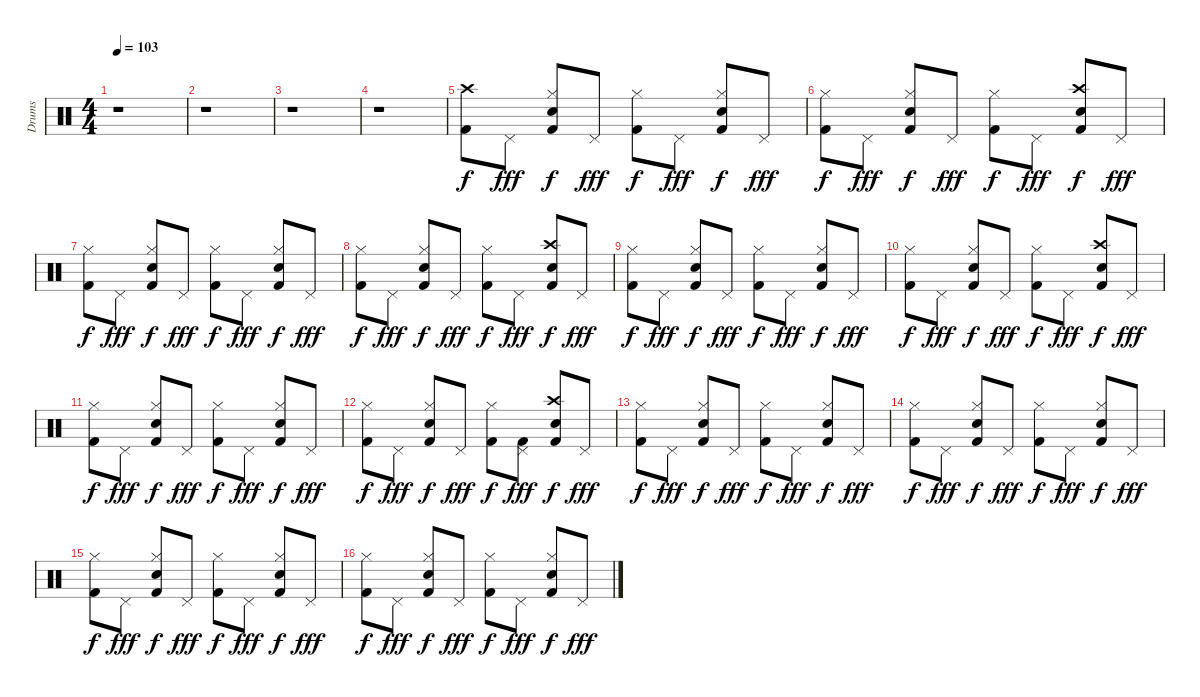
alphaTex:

\track ("Drums" "Drums") {instrument percussion}
\staff {score}
\articulation defaults
\ts (4 4)
\tempo 103
\clef neutral
\ks c
r.1{dy f} |
r.1 |
r.1 |
r.1 |
("Kick (hit) 2" "Crash high (hit)").8 "Pedal Hi-Hat (hit)".8{dy fff} ("Kick (hit) 2" "Hi-Hat (closed)" "Snare (hit) 2").8{dy f} "Pedal Hi-Hat (hit)".8{dy fff} ("Kick (hit) 2" "Hi-Hat (closed)").8{dy f} "Pedal Hi-Hat (hit)".8{dy fff} ("Kick (hit) 2" "Hi-Hat (closed)" "Snare (hit) 2").8{dy f} "Pedal Hi-Hat (hit)".8{dy fff} |
("Kick (hit) 2" "Hi-Hat (closed)").8{dy f} "Pedal Hi-Hat (hit)".8{dy fff} ("Kick (hit) 2" "Hi-Hat (closed)" "Snare (hit) 2").8{dy f} "Pedal Hi-Hat (hit)".8{dy fff} ("Kick (hit) 2" "Hi-Hat (closed)").8{dy f} "Pedal Hi-Hat (hit)".8{dy fff} ("Kick (hit) 2" "Crash high (hit)" "Snare (hit) 2").8{dy f} "Pedal Hi-Hat (hit)".8{dy fff} |
("Kick (hit) 2" "Hi-Hat (closed)").8{dy f} "Pedal Hi-Hat (hit)".8{dy fff} ("Kick (hit) 2" "Hi-Hat (closed)" "Snare (hit) 2").8{dy f} "Pedal Hi-Hat (hit)".8{dy fff} ("Kick (hit) 2" "Hi-Hat (closed)").8{dy f} "Pedal Hi-Hat (hit)".8{dy fff} ("Kick (hit) 2" "Hi-Hat (closed)" "Snare (hit) 2").8{dy f} "Pedal Hi-Hat (hit)".8{dy fff} |
("Kick (hit) 2" "Hi-Hat (closed)").8{dy f} "Pedal Hi-Hat (hit)".8{dy fff} ("Kick (hit) 2" "Hi-Hat (closed)" "Snare (hit) 2").8{dy f} "Pedal Hi-Hat (hit)".8{dy fff} ("Kick (hit) 2" "Hi-Hat (closed)").8{dy f} "Pedal Hi-Hat (hit)".8{dy fff} ("Kick (hit) 2" "Crash high (hit)" "Snare (hit) 2").8{dy f} "Pedal Hi-Hat (hit)".8{dy fff} |
("Kick (hit) 2" "Hi-Hat (closed)").8{dy f} "Pedal Hi-Hat (hit)".8{dy fff} ("Kick (hit) 2" "Hi-Hat (closed)" "Snare (hit) 2").8{dy f} "Pedal Hi-Hat (hit)".8{dy fff} ("Kick (hit) 2" "Hi-Hat (closed)").8{dy f} "Pedal Hi-Hat (hit)".8{dy fff} ("Kick (hit) 2" "Hi-Hat (closed)" "Snare (hit) 2").8{dy f} "Pedal Hi-Hat (hit)".8{dy fff} |
("Kick (hit) 2" "Hi-Hat (closed)").8{dy f} "Pedal Hi-Hat (hit)".8{dy fff} ("Kick (hit) 2" "Hi-Hat (closed)" "Snare (hit) 2").8{dy f} "Pedal Hi-Hat (hit)".8{dy fff} ("Kick (hit) 2" "Hi-Hat (closed)").8{dy f} "Pedal Hi-Hat (hit)".8{dy fff} ("Kick (hit) 2" "Crash high (hit)" "Snare (hit) 2").8{dy f} "Pedal Hi-Hat (hit)".8{dy fff} |
("Kick (hit) 2" "Hi-Hat (closed)").8{dy f} "Pedal Hi-Hat (hit)".8{dy fff} ("Kick (hit) 2" "Hi-Hat (closed)" "Snare (hit) 2").8{dy f} "Pedal Hi-Hat (hit)".8{dy fff} ("Kick (hit) 2" "Hi-Hat (closed)").8{dy f} "Pedal Hi-Hat (hit)".8{dy fff} ("Kick (hit) 2" "Hi-Hat (closed)" "Snare (hit) 2").8{dy f} "Pedal Hi-Hat (hit)".8{dy fff} |
("Kick (hit) 2" "Hi-Hat (closed)").8{dy f} "Pedal Hi-Hat (hit)".8{dy fff} ("Kick (hit) 2" "Hi-Hat (closed)" "Snare (hit) 2").8{dy f} "Pedal Hi-Hat (hit)".8{dy fff} ("Kick (hit) 2" "Hi-Hat (closed)").8{dy f} ("Kick (hit) 2" "Pedal Hi-Hat (hit)").8{dy fff} ("Kick (hit) 2" "Crash high (hit)" "Snare (hit) 2").8{dy f} "Pedal Hi-Hat (hit)".8{dy fff} |
("Kick (hit) 2" "Hi-Hat (closed)").8{dy f} "Pedal Hi-Hat (hit)".8{dy fff} ("Kick (hit) 2" "Hi-Hat (closed)" "Snare (hit) 2").8{dy f} "Pedal Hi-Hat (hit)".8{dy fff} ("Kick (hit) 2" "Hi-Hat (closed)").8{dy f} "Pedal Hi-Hat (hit)".8{dy fff} ("Kick (hit) 2" "Hi-Hat (closed)" "Snare (hit) 2").8{dy f} "Pedal Hi-Hat (hit)".8{dy fff} |
("Kick (hit) 2" "Hi-Hat (closed)").8{dy f} "Pedal Hi-Hat (hit)".8{dy fff} ("Kick (hit) 2" "Hi-Hat (closed)" "Snare (hit) 2").8{dy f} "Pedal Hi-Hat (hit)".8{dy fff} ("Kick (hit) 2" "Hi-Hat (closed)").8{dy f} "Pedal Hi-Hat (hit)".8{dy fff} ("Kick (hit) 2" "Hi-Hat (closed)" "Snare (hit) 2").8{dy f} "Pedal Hi-Hat (hit)".8{dy fff} |
("Kick (hit) 2" "Hi-Hat (closed)").8{dy f} "Pedal Hi-Hat (hit)".8{dy fff} ("Kick (hit) 2" "Hi-Hat (closed)" "Snare (hit) 2").8{dy f} "Pedal Hi-Hat (hit)".8{dy fff} ("Kick (hit) 2" "Hi-Hat (closed)").8{dy f} "Pedal Hi-Hat (hit)".8{dy fff} ("Kick (hit) 2" "Hi-Hat (closed)" "Snare (hit) 2").8{dy f} "Pedal Hi-Hat (hit)".8{dy fff} |
("Kick (hit) 2" "Hi-Hat (closed)").8{dy f} "Pedal Hi-Hat (hit)".8{dy fff} ("Kick (hit) 2" "Hi-Hat (closed)" "Snare (hit) 2").8{dy f} "Pedal Hi-Hat (hit)".8{dy fff} ("Kick (hit) 2" "Hi-Hat (closed)").8{dy f} "Pedal Hi-Hat (hit)".8{dy fff} ("Kick (hit) 2" "Hi-Hat (closed)" "Snare (hit) 2").8{dy f} "Pedal Hi-Hat (hit)".8{dy fff}
